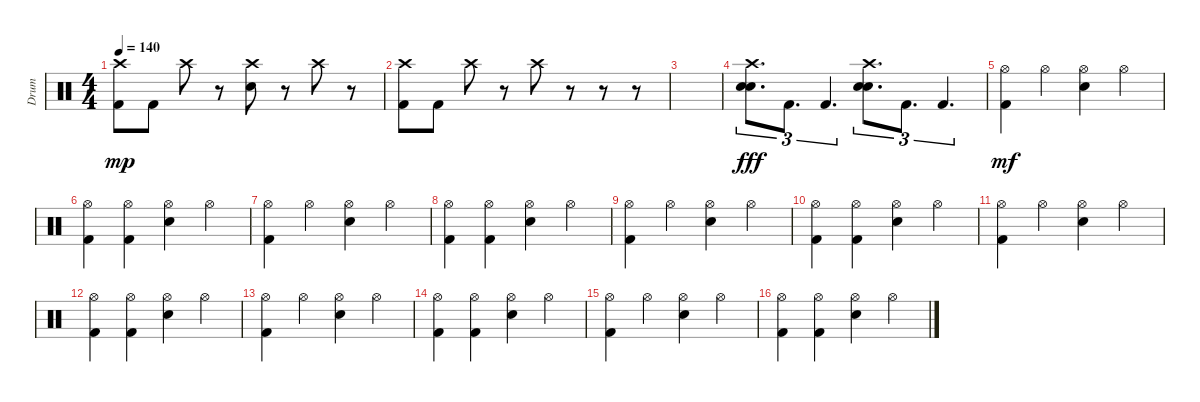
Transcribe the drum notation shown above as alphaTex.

\track ("Drum" "Drum") {instrument percussion}
\staff {score}
\articulation defaults
\ts (4 4)
\tempo 140
\clef neutral
\ks c
("Crash high (hit)" "Kick (hit) 2").8{dy mp} "Kick (hit) 2".8 "Crash high (hit)".8 r.8 ("Crash high (hit)" "Electric Snare (hit)").8 r.8 "Crash high (hit)".8 r.8 |
("Crash high (hit)" "Kick (hit) 2").8 "Kick (hit) 2".8 "Crash high (hit)".8 r.8 "Crash high (hit)".8 r.8 r.8 r.8 |
|
("Electric Snare (hit)" "Electric Snare (hit)" "Crash high (hit)").8{d tu (3 2) dy fff} "Kick (hit) 2".8{d tu (3 2)} "Kick (hit) 2".4{d tu (3 2)} ("Electric Snare (hit)" "Electric Snare (hit)" "Crash high (hit)").8{d tu (3 2)} "Kick (hit) 2".8{d tu (3 2)} "Kick (hit) 2".4{d tu (3 2)} |
("Hi-Hat (open)" "Kick (hit) 2").4{dy mf} "Hi-Hat (open)".4 ("Hi-Hat (open)" "Electric Snare (hit)").4 "Hi-Hat (open)".4 |
("Hi-Hat (open)" "Kick (hit) 2").4 ("Hi-Hat (open)" "Kick (hit) 2").4 ("Hi-Hat (open)" "Electric Snare (hit)").4 "Hi-Hat (open)".4 |
("Hi-Hat (open)" "Kick (hit) 2").4 "Hi-Hat (open)".4 ("Hi-Hat (open)" "Snare (hit) 2").4 "Hi-Hat (open)".4 |
("Hi-Hat (open)" "Kick (hit) 2").4 ("Hi-Hat (open)" "Kick (hit) 2").4 ("Hi-Hat (open)" "Electric Snare (hit)").4 "Hi-Hat (open)".4 |
("Hi-Hat (open)" "Kick (hit) 2").4 "Hi-Hat (open)".4 ("Hi-Hat (open)" "Electric Snare (hit)").4 "Hi-Hat (open)".4 |
("Hi-Hat (open)" "Kick (hit) 2").4 ("Hi-Hat (open)" "Kick (hit) 2").4 ("Hi-Hat (open)" "Electric Snare (hit)").4 "Hi-Hat (open)".4 |
("Hi-Hat (open)" "Kick (hit) 2").4 "Hi-Hat (open)".4 ("Hi-Hat (open)" "Snare (hit) 2").4 "Hi-Hat (open)".4 |
("Hi-Hat (open)" "Kick (hit) 2").4 ("Hi-Hat (open)" "Kick (hit) 2").4 ("Hi-Hat (open)" "Electric Snare (hit)").4 "Hi-Hat (open)".4 |
("Hi-Hat (open)" "Kick (hit) 2").4 "Hi-Hat (open)".4 ("Hi-Hat (open)" "Electric Snare (hit)").4 "Hi-Hat (open)".4 |
("Hi-Hat (open)" "Kick (hit) 2").4 ("Hi-Hat (open)" "Kick (hit) 2").4 ("Hi-Hat (open)" "Electric Snare (hit)").4 "Hi-Hat (open)".4 |
("Hi-Hat (open)" "Kick (hit) 2").4 "Hi-Hat (open)".4 ("Hi-Hat (open)" "Snare (hit) 2").4 "Hi-Hat (open)".4 |
("Hi-Hat (open)" "Kick (hit) 2").4 ("Hi-Hat (open)" "Kick (hit) 2").4 ("Hi-Hat (open)" "Electric Snare (hit)").4 "Hi-Hat (open)".4
